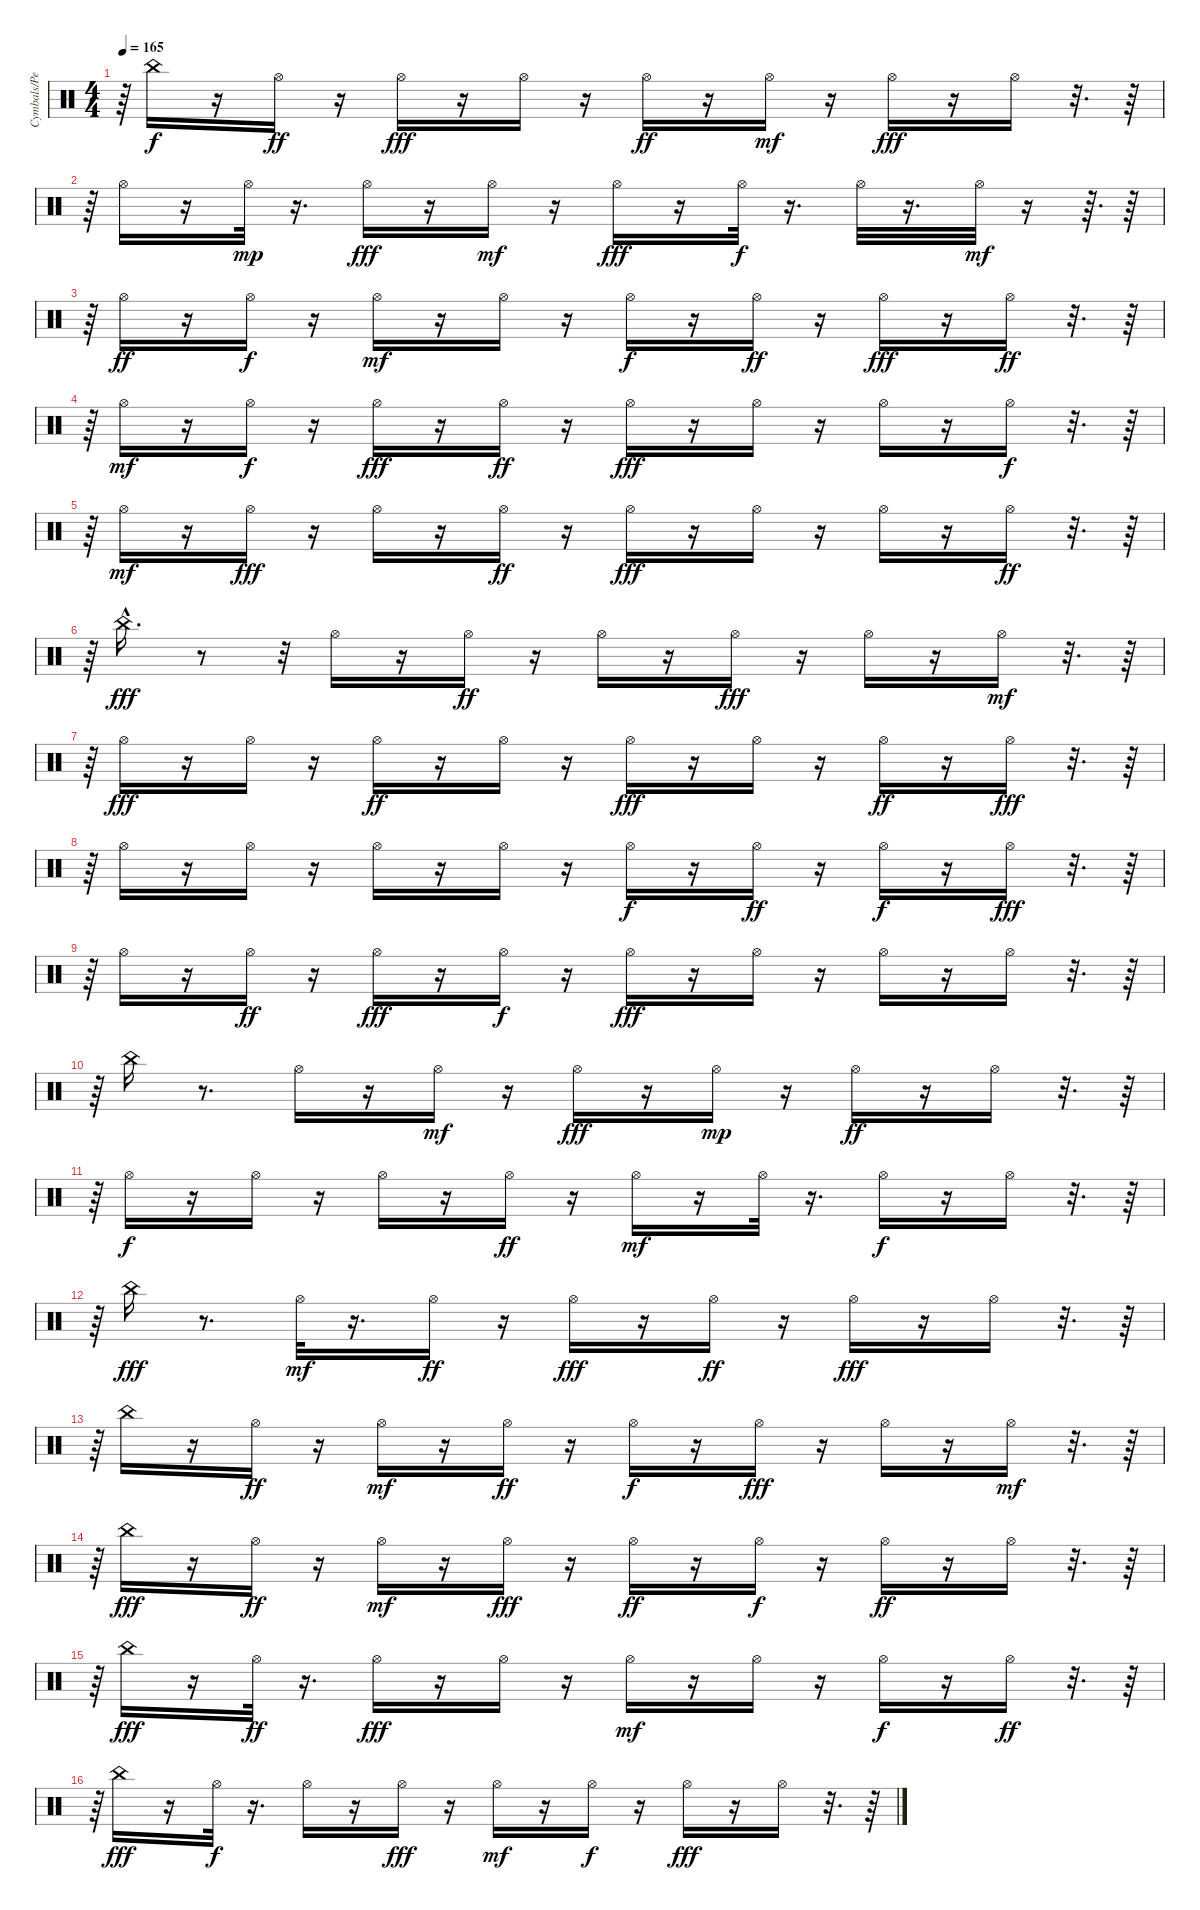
\track ("Cymbals/Percussion" "Cymbals/Pe") {instrument percussion}
\staff {score}
\articulation defaults
\ts (4 4)
\tempo 165
\clef neutral
\ks c
r.64{dy fff} "China (hit)".16{dy f} r.16 "Hi-Hat (open)".16{dy ff} r.16 "Hi-Hat (open)".16{dy fff} r.16 "Hi-Hat (open)".16 r.16 "Hi-Hat (open)".16{dy ff} r.16 "Hi-Hat (open)".16{dy mf} r.16 "Hi-Hat (open)".16{dy fff} r.16 "Hi-Hat (open)".16 r.32{d} r.64 |
r.64 "Hi-Hat (open)".16 r.16 "Hi-Hat (open)".32{dy mp} r.16{d} "Hi-Hat (open)".16{dy fff} r.16 "Hi-Hat (open)".16{dy mf} r.16 "Hi-Hat (open)".16{dy fff} r.16 "Hi-Hat (open)".32{dy f} r.16{d} "Hi-Hat (open)".32 r.16{d} "Hi-Hat (open)".32{dy mf} r.16 r.64{d} r.64 |
r.64 "Hi-Hat (open)".16{dy ff} r.16 "Hi-Hat (open)".16{dy f} r.16 "Hi-Hat (open)".16{dy mf} r.16 "Hi-Hat (open)".16 r.16 "Hi-Hat (open)".16{dy f} r.16 "Hi-Hat (open)".16{dy ff} r.16 "Hi-Hat (open)".16{dy fff} r.16 "Hi-Hat (open)".16{dy ff} r.32{d} r.64 |
r.64 "Hi-Hat (open)".16{dy mf} r.16 "Hi-Hat (open)".16{dy f} r.16 "Hi-Hat (open)".16{dy fff} r.16 "Hi-Hat (open)".16{dy ff} r.16 "Hi-Hat (open)".16{dy fff} r.16 "Hi-Hat (open)".16 r.16 "Hi-Hat (open)".16 r.16 "Hi-Hat (open)".16{dy f} r.32{d} r.64 |
r.64 "Hi-Hat (open)".16{dy mf} r.16 "Hi-Hat (open)".16{dy fff} r.16 "Hi-Hat (open)".16 r.16 "Hi-Hat (open)".16{dy ff} r.16 "Hi-Hat (open)".16{dy fff} r.16 "Hi-Hat (open)".16 r.16 "Hi-Hat (open)".16 r.16 "Hi-Hat (open)".16{dy ff} r.32{d} r.64 |
r.64 "China (hit)"{hac}.16{d dy fff} r.8 r.32 "Hi-Hat (open)".16 r.16 "Hi-Hat (open)".16{dy ff} r.16 "Hi-Hat (open)".16 r.16 "Hi-Hat (open)".16{dy fff} r.16 "Hi-Hat (open)".16 r.16 "Hi-Hat (open)".16{dy mf} r.32{d} r.64 |
r.64 "Hi-Hat (open)".16{dy fff} r.16 "Hi-Hat (open)".16 r.16 "Hi-Hat (open)".16{dy ff} r.16 "Hi-Hat (open)".16 r.16 "Hi-Hat (open)".16{dy fff} r.16 "Hi-Hat (open)".16 r.16 "Hi-Hat (open)".16{dy ff} r.16 "Hi-Hat (open)".16{dy fff} r.32{d} r.64 |
r.64 "Hi-Hat (open)".16 r.16 "Hi-Hat (open)".16 r.16 "Hi-Hat (open)".16 r.16 "Hi-Hat (open)".16 r.16 "Hi-Hat (open)".16{dy f} r.16 "Hi-Hat (open)".16{dy ff} r.16 "Hi-Hat (open)".16{dy f} r.16 "Hi-Hat (open)".16{dy fff} r.32{d} r.64 |
r.64 "Hi-Hat (open)".16 r.16 "Hi-Hat (open)".16{dy ff} r.16 "Hi-Hat (open)".16{dy fff} r.16 "Hi-Hat (open)".16{dy f} r.16 "Hi-Hat (open)".16{dy fff} r.16 "Hi-Hat (open)".16 r.16 "Hi-Hat (open)".16 r.16 "Hi-Hat (open)".16 r.32{d} r.64 |
r.64 "China (hit)".16 r.8{d} "Hi-Hat (open)".16 r.16 "Hi-Hat (open)".16{dy mf} r.16 "Hi-Hat (open)".16{dy fff} r.16 "Hi-Hat (open)".16{dy mp} r.16 "Hi-Hat (open)".16{dy ff} r.16 "Hi-Hat (open)".16 r.32{d} r.64 |
r.64 "Hi-Hat (open)".16{dy f} r.16 "Hi-Hat (open)".16 r.16 "Hi-Hat (open)".16 r.16 "Hi-Hat (open)".16{dy ff} r.16 "Hi-Hat (open)".16{dy mf} r.16 "Hi-Hat (open)".32 r.16{d} "Hi-Hat (open)".16{dy f} r.16 "Hi-Hat (open)".16 r.32{d} r.64 |
r.64 "China (hit)".16{dy fff} r.8{d} "Hi-Hat (open)".32{dy mf} r.16{d} "Hi-Hat (open)".16{dy ff} r.16 "Hi-Hat (open)".16{dy fff} r.16 "Hi-Hat (open)".16{dy ff} r.16 "Hi-Hat (open)".16{dy fff} r.16 "Hi-Hat (open)".16 r.32{d} r.64 |
r.64 "China (hit)".16 r.16 "Hi-Hat (open)".16{dy ff} r.16 "Hi-Hat (open)".16{dy mf} r.16 "Hi-Hat (open)".16{dy ff} r.16 "Hi-Hat (open)".16{dy f} r.16 "Hi-Hat (open)".16{dy fff} r.16 "Hi-Hat (open)".16 r.16 "Hi-Hat (open)".16{dy mf} r.32{d} r.64 |
r.64 "China (hit)".16{dy fff} r.16 "Hi-Hat (open)".16{dy ff} r.16 "Hi-Hat (open)".16{dy mf} r.16 "Hi-Hat (open)".16{dy fff} r.16 "Hi-Hat (open)".16{dy ff} r.16 "Hi-Hat (open)".16{dy f} r.16 "Hi-Hat (open)".16{dy ff} r.16 "Hi-Hat (open)".16 r.32{d} r.64 |
r.64 "China (hit)".16{dy fff} r.16 "Hi-Hat (open)".32{dy ff} r.16{d} "Hi-Hat (open)".16{dy fff} r.16 "Hi-Hat (open)".16 r.16 "Hi-Hat (open)".16{dy mf} r.16 "Hi-Hat (open)".16 r.16 "Hi-Hat (open)".16{dy f} r.16 "Hi-Hat (open)".16{dy ff} r.32{d} r.64 |
r.64 "China (hit)".16{dy fff} r.16 "Hi-Hat (open)".32{dy f} r.16{d} "Hi-Hat (open)".16 r.16 "Hi-Hat (open)".16{dy fff} r.16 "Hi-Hat (open)".16{dy mf} r.16 "Hi-Hat (open)".16{dy f} r.16 "Hi-Hat (open)".16{dy fff} r.16 "Hi-Hat (open)".16 r.32{d} r.64
